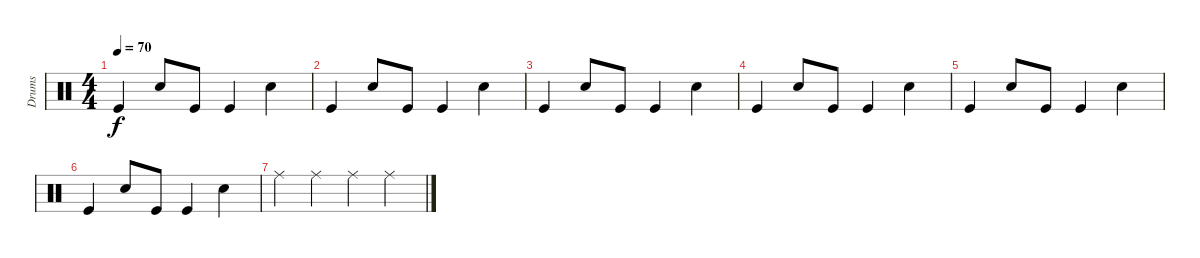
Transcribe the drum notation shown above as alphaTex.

\track ("Drums" "Drums") {instrument percussion}
\staff {score}
\articulation defaults
\ts (4 4)
\tempo 70
\clef neutral
\ks c "Kick (hit)".4{dy f} "Snare (hit) 2".8 "Kick (hit)".8 "Kick (hit)".4 "Snare (hit) 2".4
|
"Kick (hit)".4 "Snare (hit) 2".8 "Kick (hit)".8 "Kick (hit)".4 "Snare (hit) 2".4 |
"Kick (hit)".4 "Snare (hit) 2".8 "Kick (hit)".8 "Kick (hit)".4 "Snare (hit) 2".4 |
"Kick (hit)".4 "Snare (hit) 2".8 "Kick (hit)".8 "Kick (hit)".4 "Snare (hit) 2".4 |
"Kick (hit)".4 "Snare (hit) 2".8 "Kick (hit)".8 "Kick (hit)".4 "Snare (hit) 2".4 |
"Kick (hit)".4 "Snare (hit) 2".8 "Kick (hit)".8 "Kick (hit)".4 "Snare (hit) 2".4 |
"Ride (middle)".4 "Ride (middle)".4 "Ride (middle)".4 "Ride (middle)".4
